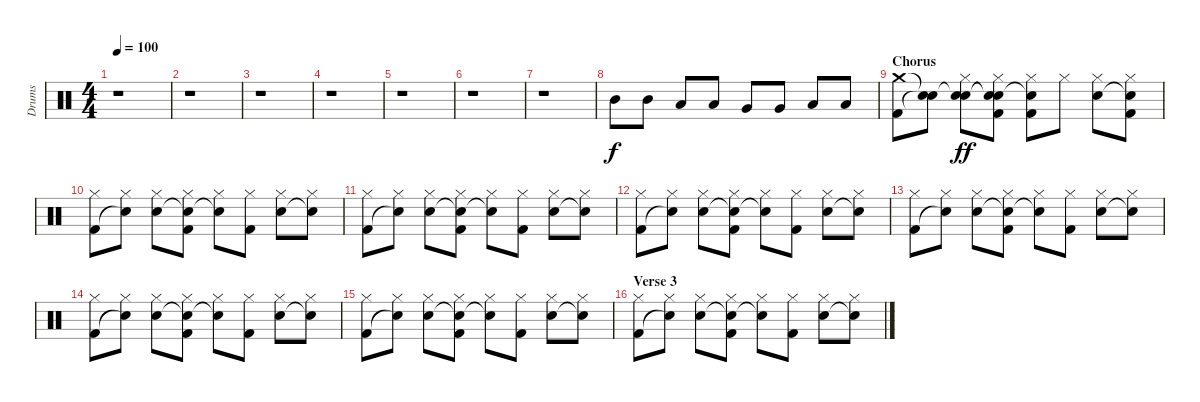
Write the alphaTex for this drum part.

\track ("Drums" "Drums") {instrument percussion}
\staff {score}
\articulation defaults
\ts (4 4)
\tempo 100
\clef neutral
\ks c
r.1{dy f} |
r.1 |
r.1 |
r.1 |
r.1 |
r.1 |
r.1 |
"Mid Tom (hit)".8 "Mid Tom (hit)".8 "Low Tom (hit)".8 "Low Tom (hit)".8 "Very Low Tom (hit)".8 "Very Low Tom (hit)".8 "Low Floor Tom (hit)".8 "Low Floor Tom (hit)".8 |
\section ("" "Chorus")
("Crash medium (hit)" "Kick (hit) 2").8 ("Snare (hit)"{t} "Snare (hit)"{t}).8 ("Snare (hit)"{t} "Hi-Hat (closed)" "Snare (hit) 2").8{dy ff} ("Snare (hit)"{t} "Hi-Hat (closed)" "Snare (hit)"{t} "Kick (hit) 2").8 ("Snare (hit)"{t} "Hi-Hat (closed)" "Kick (hit) 2").8 "Hi-Hat (closed)".8 ("Hi-Hat (closed)" "Snare (hit) 2").8 ("Hi-Hat (closed)" "Snare (hit)"{t} "Kick (hit) 2").8 |
("Hi-Hat (closed)" "Kick (hit) 2").8 ("Hi-Hat (closed)" "Snare (hit)"{t}).8 ("Hi-Hat (closed)" "Snare (hit) 2").8 ("Hi-Hat (closed)" "Snare (hit)"{t} "Kick (hit) 2").8 ("Hi-Hat (closed)" "Snare (hit)"{t}).8 ("Hi-Hat (closed)" "Kick (hit) 2").8 ("Hi-Hat (closed)" "Snare (hit) 2").8 ("Hi-Hat (closed)" "Snare (hit)"{t}).8 |
("Hi-Hat (closed)" "Kick (hit) 2").8 ("Hi-Hat (closed)" "Snare (hit)"{t}).8 ("Hi-Hat (closed)" "Snare (hit) 2").8 ("Hi-Hat (closed)" "Snare (hit)"{t} "Kick (hit) 2").8 ("Hi-Hat (closed)" "Snare (hit)"{t}).8 ("Hi-Hat (closed)" "Kick (hit) 2").8 ("Hi-Hat (closed)" "Snare (hit) 2").8 ("Hi-Hat (closed)" "Snare (hit)"{t}).8 |
("Hi-Hat (closed)" "Kick (hit) 2").8 ("Hi-Hat (closed)" "Snare (hit)"{t}).8 ("Hi-Hat (closed)" "Snare (hit) 2").8 ("Hi-Hat (closed)" "Snare (hit)"{t} "Kick (hit) 2").8 ("Hi-Hat (closed)" "Snare (hit)"{t}).8 ("Hi-Hat (closed)" "Kick (hit) 2").8 ("Hi-Hat (closed)" "Snare (hit) 2").8 ("Hi-Hat (closed)" "Snare (hit)"{t}).8 |
("Hi-Hat (closed)" "Kick (hit) 2").8 ("Hi-Hat (closed)" "Snare (hit)"{t}).8 ("Hi-Hat (closed)" "Snare (hit) 2").8 ("Hi-Hat (closed)" "Snare (hit)"{t} "Kick (hit) 2").8 ("Hi-Hat (closed)" "Snare (hit)"{t}).8 ("Hi-Hat (closed)" "Kick (hit) 2").8 ("Hi-Hat (closed)" "Snare (hit) 2").8 ("Hi-Hat (closed)" "Snare (hit)"{t}).8 |
("Hi-Hat (closed)" "Kick (hit) 2").8 ("Hi-Hat (closed)" "Snare (hit)"{t}).8 ("Hi-Hat (closed)" "Snare (hit) 2").8 ("Hi-Hat (closed)" "Snare (hit)"{t} "Kick (hit) 2").8 ("Hi-Hat (closed)" "Snare (hit)"{t}).8 ("Hi-Hat (closed)" "Kick (hit) 2").8 ("Hi-Hat (closed)" "Snare (hit) 2").8 ("Hi-Hat (closed)" "Snare (hit)"{t}).8 |
("Hi-Hat (closed)" "Kick (hit) 2").8 ("Hi-Hat (closed)" "Snare (hit)"{t}).8 ("Hi-Hat (closed)" "Snare (hit) 2").8 ("Hi-Hat (closed)" "Snare (hit)"{t} "Kick (hit) 2").8 ("Hi-Hat (closed)" "Snare (hit)"{t}).8 ("Hi-Hat (closed)" "Kick (hit) 2").8 ("Hi-Hat (closed)" "Snare (hit) 2").8 ("Hi-Hat (closed)" "Snare (hit)"{t}).8 |
\section ("" "Verse 3")
("Hi-Hat (closed)" "Kick (hit) 2").8 ("Hi-Hat (closed)" "Snare (hit)"{t}).8 ("Hi-Hat (closed)" "Snare (hit) 2").8 ("Hi-Hat (closed)" "Snare (hit)"{t} "Kick (hit) 2").8 ("Hi-Hat (closed)" "Snare (hit)"{t}).8 ("Hi-Hat (closed)" "Kick (hit) 2").8 ("Hi-Hat (closed)" "Snare (hit) 2").8 ("Hi-Hat (closed)" "Snare (hit)"{t}).8
